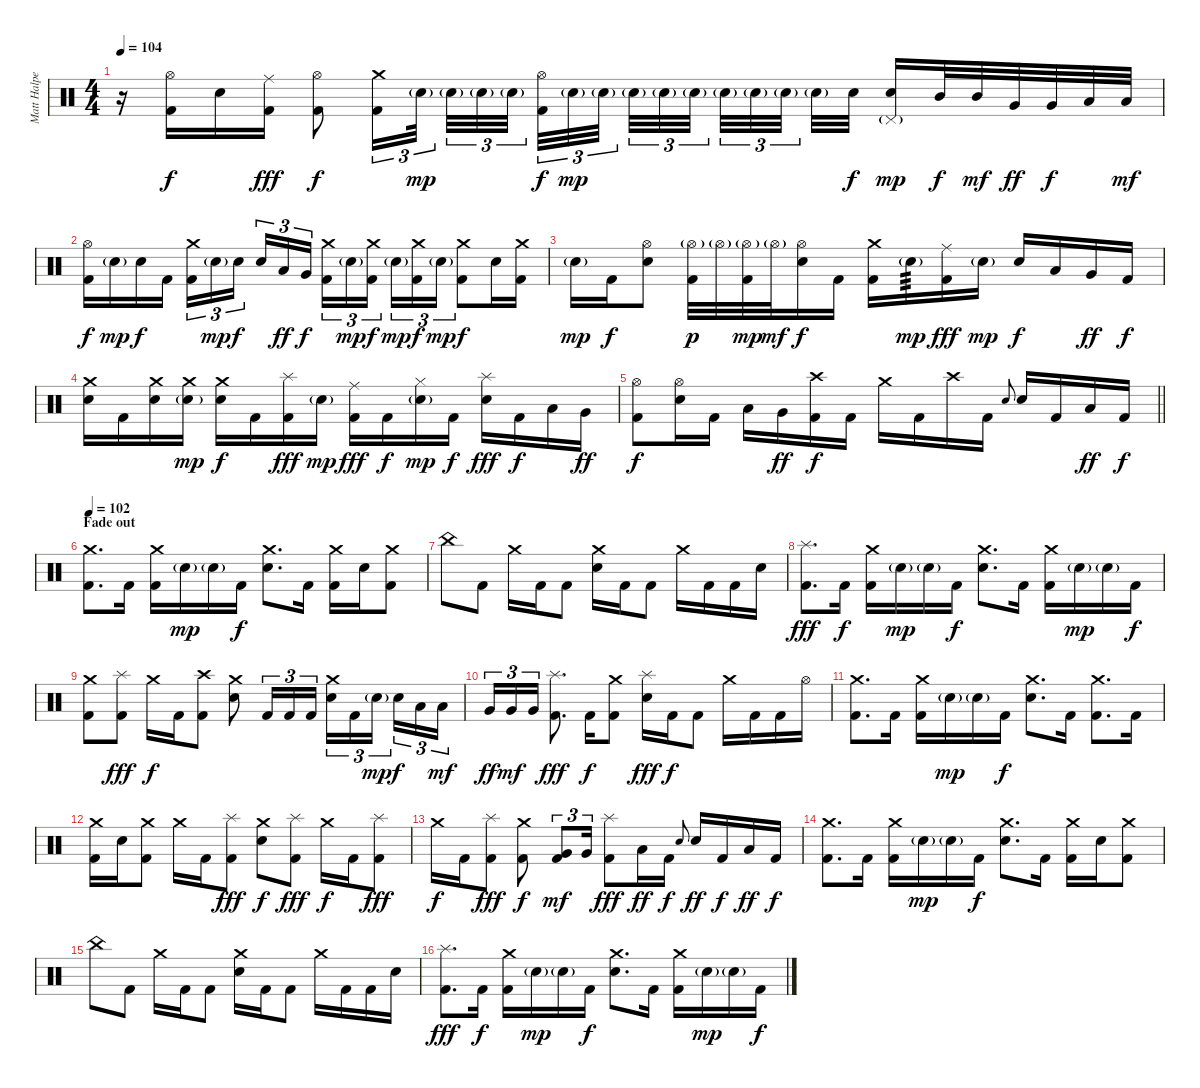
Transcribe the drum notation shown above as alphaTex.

\track ("Matt Halpern - Drums" "Matt Halpe") {instrument percussion}
\staff {score}
\articulation defaults
\ts (4 4)
\tempo 104
\clef neutral
\ks c
r.16{dy fff} ("Hi-Hat (open)" "Kick (hit) 2").16{dy f} "Electric Snare (hit)".16 ("Ride (middle)" "Kick (hit) 2").16{dy fff} ("Hi-Hat (open)" "Kick (hit) 2").8{dy f} ("Crash medium (hit)" "Kick (hit) 2").16{tu (3 2)} "Electric Snare (hit)"{g}.32{tu (3 2) dy mp beam splitsecondary} "Electric Snare (hit)"{g}.32{tu (3 2)} "Electric Snare (hit)"{g}.32{tu (3 2)} "Electric Snare (hit)"{g}.32{tu (3 2)} ("Hi-Hat (open)" "Kick (hit) 2").32{tu (3 2) dy f} "Electric Snare (hit)"{g}.32{tu (3 2) dy mp} "Electric Snare (hit)"{g}.32{tu (3 2) beam splitsecondary} "Electric Snare (hit)"{g}.32{tu (3 2)} "Electric Snare (hit)"{g}.32{tu (3 2)} "Electric Snare (hit)"{g}.32{tu (3 2) beam splitsecondary} "Electric Snare (hit)"{g}.32{tu (3 2)} "Electric Snare (hit)"{g}.32{tu (3 2)} "Electric Snare (hit)"{g}.32{tu (3 2) beam splitsecondary} "Electric Snare (hit)"{g}.32 "Electric Snare (hit)".32{dy f} ("Electric Snare (hit)" "Pedal Hi-Hat (hit)"{g}).16{dy mp} "Mid Tom (hit)".32{dy f} "Mid Tom (hit)".32{dy mf} "Very Low Tom (hit)".32{dy ff} "Very Low Tom (hit)".32{dy f} "Low Floor Tom (hit)".32 "Low Floor Tom (hit)".32{dy mf} |
("Hi-Hat (open)" "Kick (hit) 2").16{dy f} "Electric Snare (hit)"{g}.16{dy mp} "Electric Snare (hit)".16{dy f} "Kick (hit) 2".16 ("Crash medium (hit)" "Kick (hit) 2").16{tu (3 2)} "Electric Snare (hit)"{g}.16{tu (3 2) dy mp} "Electric Snare (hit)".16{tu (3 2) dy f beam splitsecondary} "Electric Snare (hit)".16{tu (3 2)} "Low Floor Tom (hit)".16{tu (3 2) dy ff} "Very Low Tom (hit)".16{tu (3 2) dy f} ("Crash medium (hit)" "Kick (hit) 2").16{tu (3 2)} "Electric Snare (hit)"{g}.16{tu (3 2) dy mp} ("Crash medium (hit)" "Kick (hit) 2").16{tu (3 2) dy f beam splitsecondary} "Electric Snare (hit)"{g}.16{tu (3 2) dy mp} ("Crash medium (hit)" "Kick (hit) 2").16{tu (3 2) dy f} "Electric Snare (hit)"{g}.16{tu (3 2) dy mp} ("Crash medium (hit)" "Kick (hit) 2").8{dy f} "Electric Snare (hit)".16 ("Crash medium (hit)" "Kick (hit) 2").16 |
"Electric Snare (hit)"{g}.16{dy mp} "Kick (hit) 2".16{dy f} ("Hi-Hat (open)" "Electric Snare (hit)").8 ("Hi-Hat (open)"{g} "Kick (hit) 2").32{dy p} "Hi-Hat (open)"{g}.32 ("Hi-Hat (open)"{g} "Kick (hit) 2").32{dy mp} "Hi-Hat (open)"{g}.32{dy mf} ("Hi-Hat (open)" "Electric Snare (hit)").16{dy f} "Kick (hit) 2".16 ("Crash medium (hit)" "Kick (hit) 2").16 "Electric Snare (hit)"{g}.16{tp 3 dy mp} ("Ride (middle)" "Kick (hit) 2").16{dy fff} "Electric Snare (hit)"{g}.16{dy mp} "Electric Snare (hit)".16{dy f} "Low Tom (hit)".16 "Very Low Tom (hit)".16{dy ff} "Kick (hit) 2".16{dy f} |
("Crash medium (hit)" "Electric Snare (hit)").16 "Kick (hit) 2".16 ("Crash medium (hit)" "Electric Snare (hit)").16 ("Crash medium (hit)" "Electric Snare (hit)"{g}).16{dy mp} ("Crash medium (hit)" "Electric Snare (hit)").16{dy f} "Kick (hit) 2".16 ("Splash (hit)" "Kick (hit) 2").16{dy fff} "Electric Snare (hit)"{g}.16{dy mp} ("Ride (middle)" "Kick (hit) 2").16{dy fff} "Kick (hit) 2".16{dy f} ("Hi-Hat (closed)" "Electric Snare (hit)"{g}).16{dy mp} "Kick (hit) 2".16{dy f} ("Splash (hit)" "Electric Snare (hit)").16{dy fff} "Kick (hit) 2".16{dy f} "Low Floor Tom (hit)".16 "Very Low Tom (hit)".16{dy ff} |
\barLineRight lightlight
("Hi-Hat (open)" "Kick (hit) 2").8{dy f} ("Hi-Hat (open)" "Electric Snare (hit)").16 "Kick (hit) 2".16 "Low Floor Tom (hit)".16 "Very Low Tom (hit)".16{dy ff} ("Crash high (hit)" "Kick (hit) 2").16{dy f} "Kick (hit) 2".16 "Crash medium (hit)".16 "Kick (hit) 2".16 "Crash high (hit)".16 "Kick (hit) 2".16 "Electric Snare (hit)".8{gr onbeat} "Electric Snare (hit)".16 "Kick (hit) 2".16 "Low Floor Tom (hit)".16{dy ff} "Kick (hit) 2".16{dy f} |
\section ("" "Fade out")
\tempo 102
("Crash medium (hit)" "Kick (hit) 2").8{d} "Kick (hit) 2".16 ("Crash medium (hit)" "Kick (hit) 2").16 "Electric Snare (hit)"{g}.16{dy mp} "Electric Snare (hit)"{g}.16 "Kick (hit) 2".16{dy f} ("Crash medium (hit)" "Electric Snare (hit)").8{d} "Kick (hit) 2".16 ("Crash medium (hit)" "Kick (hit) 2").16 "Electric Snare (hit)".16 ("Crash medium (hit)" "Kick (hit) 2").8 |
"China (hit)".8 "Kick (hit) 2".8 "Crash medium (hit)".16 "Kick (hit) 2".16 "Kick (hit) 2".8 ("Crash medium (hit)" "Electric Snare (hit)").16 "Kick (hit) 2".16 "Kick (hit) 2".8 "Crash medium (hit)".16 "Kick (hit) 2".16 "Kick (hit) 2".16 "Electric Snare (hit)".16 |
("Splash (hit)" "Kick (hit) 2").8{d dy fff} "Kick (hit) 2".16{dy f} ("Crash medium (hit)" "Kick (hit) 2").16 "Electric Snare (hit)"{g}.16{dy mp} "Electric Snare (hit)"{g}.16 "Kick (hit) 2".16{dy f} ("Crash medium (hit)" "Electric Snare (hit)").8{d} "Kick (hit) 2".16 ("Crash medium (hit)" "Kick (hit) 2").16 "Electric Snare (hit)"{g}.16{dy mp} "Electric Snare (hit)"{g}.16 "Kick (hit) 2".16{dy f} |
("Crash medium (hit)" "Kick (hit) 2").8 ("Splash (hit)" "Kick (hit) 2").8{dy fff} "Crash medium (hit)".16{dy f} "Kick (hit) 2".16 ("Crash high (hit)" "Kick (hit) 2").8 ("Crash medium (hit)" "Electric Snare (hit)").8 "Kick (hit) 2".16{tu (3 2)} "Kick (hit) 2".16{tu (3 2)} "Kick (hit) 2".16{tu (3 2)} ("Crash medium (hit)" "Electric Snare (hit)").16{tu (3 2)} "Kick (hit) 2".16{tu (3 2)} "Electric Snare (hit)"{g}.16{tu (3 2) dy mp beam splitsecondary} "Electric Snare (hit)".16{tu (3 2) dy f} "Low Tom (hit)".16{tu (3 2)} "Low Tom (hit)".16{tu (3 2) dy mf} |
"Very Low Tom (hit)".16{tu (3 2) dy ff} "Very Low Tom (hit)".16{tu (3 2) dy mf} "Very Low Tom (hit)".16{tu (3 2)} ("Splash (hit)" "Kick (hit) 2").8{d dy fff} "Kick (hit) 2".16{dy f} ("Crash medium (hit)" "Kick (hit) 2").8 ("Splash (hit)" "Electric Snare (hit)").16{dy fff} "Kick (hit) 2".16{dy f} "Kick (hit) 2".8 "Crash medium (hit)".16 "Kick (hit) 2".16 "Kick (hit) 2".16 "Hi-Hat (open)".16 |
("Crash medium (hit)" "Kick (hit) 2").8{d} "Kick (hit) 2".16 ("Crash medium (hit)" "Kick (hit) 2").16 "Electric Snare (hit)"{g}.16{dy mp} "Electric Snare (hit)"{g}.16 "Kick (hit) 2".16{dy f} ("Crash medium (hit)" "Electric Snare (hit)").8{d} "Kick (hit) 2".16 ("Crash medium (hit)" "Kick (hit) 2").8{d} "Kick (hit) 2".16 |
("Crash medium (hit)" "Kick (hit) 2").16 "Electric Snare (hit)".16 ("Crash medium (hit)" "Kick (hit) 2").8 "Crash medium (hit)".16 "Kick (hit) 2".16 ("Splash (hit)" "Kick (hit) 2").8{dy fff} ("Crash medium (hit)" "Electric Snare (hit)").8{dy f} ("Splash (hit)" "Kick (hit) 2").8{dy fff} "Crash medium (hit)".16{dy f} "Kick (hit) 2".16 ("Splash (hit)" "Kick (hit) 2").8{dy fff} |
"Crash medium (hit)".16{dy f} "Kick (hit) 2".16 ("Splash (hit)" "Kick (hit) 2").8{dy fff} ("Crash medium (hit)" "Kick (hit) 2").8{dy f} ("Very Low Tom (hit)" "Kick (hit) 2").8{tu (3 2) dy mf} "Very Low Tom (hit)".16{tu (3 2)} ("Splash (hit)" "Kick (hit) 2").8{dy fff} "Low Floor Tom (hit)".16{dy ff} "Kick (hit) 2".16{dy f} "Electric Snare (hit)".8{gr onbeat} "Electric Snare (hit)".16{dy ff} "Kick (hit) 2".16{dy f} "Low Floor Tom (hit)".16{dy ff} "Kick (hit) 2".16{dy f} |
("Crash medium (hit)" "Kick (hit) 2").8{d} "Kick (hit) 2".16 ("Crash medium (hit)" "Kick (hit) 2").16 "Electric Snare (hit)"{g}.16{dy mp} "Electric Snare (hit)"{g}.16 "Kick (hit) 2".16{dy f} ("Crash medium (hit)" "Electric Snare (hit)").8{d} "Kick (hit) 2".16 ("Crash medium (hit)" "Kick (hit) 2").16 "Electric Snare (hit)".16 ("Crash medium (hit)" "Kick (hit) 2").8 |
"China (hit)".8 "Kick (hit) 2".8 "Crash medium (hit)".16 "Kick (hit) 2".16 "Kick (hit) 2".8 ("Crash medium (hit)" "Electric Snare (hit)").16 "Kick (hit) 2".16 "Kick (hit) 2".8 "Crash medium (hit)".16 "Kick (hit) 2".16 "Kick (hit) 2".16 "Electric Snare (hit)".16 |
("Splash (hit)" "Kick (hit) 2").8{d dy fff} "Kick (hit) 2".16{dy f} ("Crash medium (hit)" "Kick (hit) 2").16 "Electric Snare (hit)"{g}.16{dy mp} "Electric Snare (hit)"{g}.16 "Kick (hit) 2".16{dy f} ("Crash medium (hit)" "Electric Snare (hit)").8{d} "Kick (hit) 2".16 ("Crash medium (hit)" "Kick (hit) 2").16 "Electric Snare (hit)"{g}.16{dy mp} "Electric Snare (hit)"{g}.16 "Kick (hit) 2".16{dy f}
